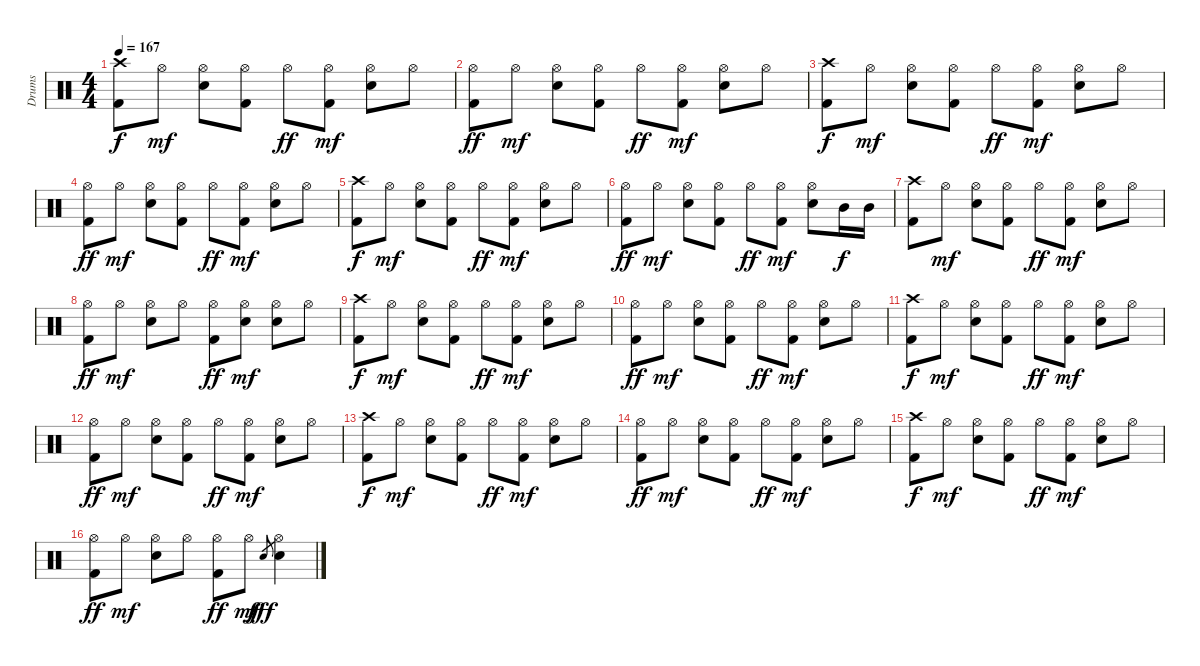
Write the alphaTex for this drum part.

\track ("Drums" "Drums") {instrument percussion}
\staff {score}
\articulation defaults
\ts (4 4)
\tempo 167
\clef neutral
\ks c
("Crash high (hit)" "Kick (hit) 2").8{dy f} "Hi-Hat (open)".8{dy mf} ("Hi-Hat (open)" "Electric Snare (hit)").8 ("Hi-Hat (open)" "Kick (hit) 2").8 "Hi-Hat (open)".8{dy ff} ("Hi-Hat (open)" "Kick (hit) 2").8{dy mf} ("Hi-Hat (open)" "Electric Snare (hit)").8 "Hi-Hat (open)".8 |
("Hi-Hat (open)" "Kick (hit) 2").8{dy ff} "Hi-Hat (open)".8{dy mf} ("Hi-Hat (open)" "Electric Snare (hit)").8 ("Hi-Hat (open)" "Kick (hit) 2").8 "Hi-Hat (open)".8{dy ff} ("Hi-Hat (open)" "Kick (hit) 2").8{dy mf} ("Hi-Hat (open)" "Electric Snare (hit)").8 "Hi-Hat (open)".8 |
("Crash high (hit)" "Kick (hit) 2").8{dy f} "Hi-Hat (open)".8{dy mf} ("Hi-Hat (open)" "Electric Snare (hit)").8 ("Hi-Hat (open)" "Kick (hit) 2").8 "Hi-Hat (open)".8{dy ff} ("Hi-Hat (open)" "Kick (hit) 2").8{dy mf} ("Hi-Hat (open)" "Electric Snare (hit)").8 "Hi-Hat (open)".8 |
("Hi-Hat (open)" "Kick (hit) 2").8{dy ff} "Hi-Hat (open)".8{dy mf} ("Hi-Hat (open)" "Electric Snare (hit)").8 ("Hi-Hat (open)" "Kick (hit) 2").8 "Hi-Hat (open)".8{dy ff} ("Hi-Hat (open)" "Kick (hit) 2").8{dy mf} ("Hi-Hat (open)" "Electric Snare (hit)").8 "Hi-Hat (open)".8 |
("Crash high (hit)" "Kick (hit) 2").8{dy f} "Hi-Hat (open)".8{dy mf} ("Hi-Hat (open)" "Electric Snare (hit)").8 ("Hi-Hat (open)" "Kick (hit) 2").8 "Hi-Hat (open)".8{dy ff} ("Hi-Hat (open)" "Kick (hit) 2").8{dy mf} ("Hi-Hat (open)" "Electric Snare (hit)").8 "Hi-Hat (open)".8 |
("Hi-Hat (open)" "Kick (hit) 2").8{dy ff} "Hi-Hat (open)".8{dy mf} ("Hi-Hat (open)" "Electric Snare (hit)").8 ("Hi-Hat (open)" "Kick (hit) 2").8 "Hi-Hat (open)".8{dy ff} ("Hi-Hat (open)" "Kick (hit) 2").8{dy mf} ("Hi-Hat (open)" "Electric Snare (hit)").8 "Mid Tom (hit)".16{dy f} "Mid Tom (hit)".16 |
("Crash high (hit)" "Kick (hit) 2").8 "Hi-Hat (open)".8{dy mf} ("Hi-Hat (open)" "Electric Snare (hit)").8 ("Hi-Hat (open)" "Kick (hit) 2").8 "Hi-Hat (open)".8{dy ff} ("Hi-Hat (open)" "Kick (hit) 2").8{dy mf} ("Hi-Hat (open)" "Electric Snare (hit)").8 "Hi-Hat (open)".8 |
("Hi-Hat (open)" "Kick (hit) 2").8{dy ff} "Hi-Hat (open)".8{dy mf} ("Hi-Hat (open)" "Electric Snare (hit)").8 "Hi-Hat (open)".8 ("Hi-Hat (open)" "Kick (hit) 2").8{dy ff} ("Hi-Hat (open)" "Electric Snare (hit)").8{dy mf} ("Hi-Hat (open)" "Electric Snare (hit)").8 "Hi-Hat (open)".8 |
("Crash high (hit)" "Kick (hit) 2").8{dy f} "Hi-Hat (open)".8{dy mf} ("Hi-Hat (open)" "Electric Snare (hit)").8 ("Hi-Hat (open)" "Kick (hit) 2").8 "Hi-Hat (open)".8{dy ff} ("Hi-Hat (open)" "Kick (hit) 2").8{dy mf} ("Hi-Hat (open)" "Electric Snare (hit)").8 "Hi-Hat (open)".8 |
("Hi-Hat (open)" "Kick (hit) 2").8{dy ff} "Hi-Hat (open)".8{dy mf} ("Hi-Hat (open)" "Electric Snare (hit)").8 ("Hi-Hat (open)" "Kick (hit) 2").8 "Hi-Hat (open)".8{dy ff} ("Hi-Hat (open)" "Kick (hit) 2").8{dy mf} ("Hi-Hat (open)" "Electric Snare (hit)").8 "Hi-Hat (open)".8 |
("Crash high (hit)" "Kick (hit) 2").8{dy f} "Hi-Hat (open)".8{dy mf} ("Hi-Hat (open)" "Electric Snare (hit)").8 ("Hi-Hat (open)" "Kick (hit) 2").8 "Hi-Hat (open)".8{dy ff} ("Hi-Hat (open)" "Kick (hit) 2").8{dy mf} ("Hi-Hat (open)" "Electric Snare (hit)").8 "Hi-Hat (open)".8 |
("Hi-Hat (open)" "Kick (hit) 2").8{dy ff} "Hi-Hat (open)".8{dy mf} ("Hi-Hat (open)" "Electric Snare (hit)").8 ("Hi-Hat (open)" "Kick (hit) 2").8 "Hi-Hat (open)".8{dy ff} ("Hi-Hat (open)" "Kick (hit) 2").8{dy mf} ("Hi-Hat (open)" "Electric Snare (hit)").8 "Hi-Hat (open)".8 |
("Crash high (hit)" "Kick (hit) 2").8{dy f} "Hi-Hat (open)".8{dy mf} ("Hi-Hat (open)" "Electric Snare (hit)").8 ("Hi-Hat (open)" "Kick (hit) 2").8 "Hi-Hat (open)".8{dy ff} ("Hi-Hat (open)" "Kick (hit) 2").8{dy mf} ("Hi-Hat (open)" "Electric Snare (hit)").8 "Hi-Hat (open)".8 |
("Hi-Hat (open)" "Kick (hit) 2").8{dy ff} "Hi-Hat (open)".8{dy mf} ("Hi-Hat (open)" "Electric Snare (hit)").8 ("Hi-Hat (open)" "Kick (hit) 2").8 "Hi-Hat (open)".8{dy ff} ("Hi-Hat (open)" "Kick (hit) 2").8{dy mf} ("Hi-Hat (open)" "Electric Snare (hit)").8 "Hi-Hat (open)".8 |
("Crash high (hit)" "Kick (hit) 2").8{dy f} "Hi-Hat (open)".8{dy mf} ("Hi-Hat (open)" "Electric Snare (hit)").8 ("Hi-Hat (open)" "Kick (hit) 2").8 "Hi-Hat (open)".8{dy ff} ("Hi-Hat (open)" "Kick (hit) 2").8{dy mf} ("Hi-Hat (open)" "Electric Snare (hit)").8 "Hi-Hat (open)".8 |
("Hi-Hat (open)" "Kick (hit) 2").8{dy ff} "Hi-Hat (open)".8{dy mf} ("Hi-Hat (open)" "Electric Snare (hit)").8 "Hi-Hat (open)".8 ("Hi-Hat (open)" "Kick (hit) 2").8{dy ff} "Hi-Hat (open)".8{dy mf} "Electric Snare (hit)".8{gr dy fff} ("Hi-Hat (open)" "Electric Snare (hit)").4
